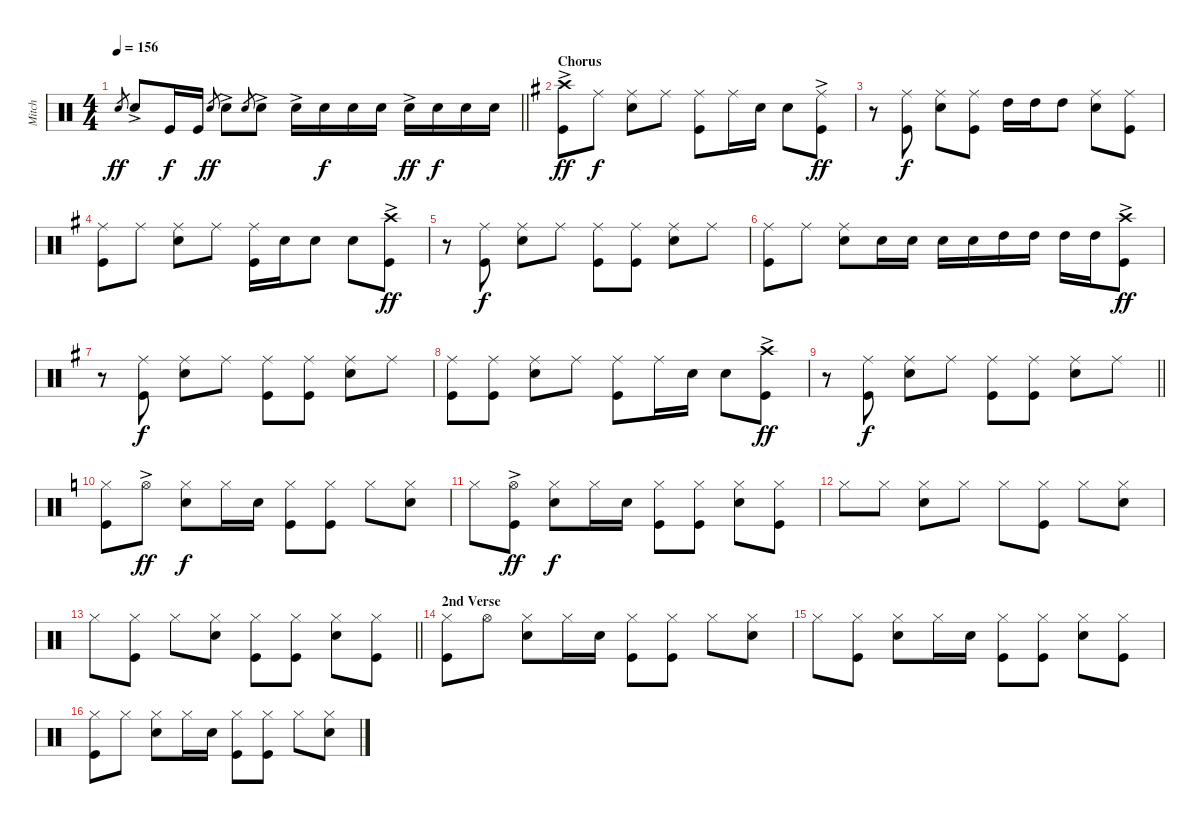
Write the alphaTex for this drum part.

\track ("Mitch" "Mitch") {instrument percussion}
\staff {score}
\articulation defaults
\ts (4 4)
\tempo 156
\clef neutral
\barLineRight lightlight
\ks c "Snare (hit) 2".8{gr dy ff} "Snare (hit) 2"{ac}.8 "Kick (hit)".16{dy f} "Kick (hit)".16 "Snare (hit) 2".8{gr dy ff} "Snare (hit) 2"{ac}.8 "Snare (hit) 2".8{gr} "Snare (hit) 2"{ac}.8 "Snare (hit) 2"{ac}.16 "Snare (hit) 2".16{dy f} "Snare (hit) 2".16 "Snare (hit) 2".16 "Snare (hit) 2"{ac}.16{dy ff} "Snare (hit) 2".16{dy f} "Snare (hit) 2".16 "Snare (hit) 2".16
|
\section ("" "Chorus")
\ks g
("Crash high (hit)"{ac} "Kick (hit)").8{dy ff} "Ride (middle)".8{dy f} ("Ride (middle)" "Snare (hit) 2").8 "Ride (middle)".8 ("Ride (middle)" "Kick (hit)").8 "Ride (middle)".16 "Snare (hit) 2".16 "Snare (hit) 2".8 ("Ride (middle)"{ac} "Kick (hit)").8{dy ff} |
r.8 ("Ride (middle)" "Kick (hit)").8{dy f} ("Ride (middle)" "Snare (hit) 2").8 ("Ride (middle)" "Kick (hit)").8 "High Tom (hit)".16 "High Tom (hit)".16 "High Tom (hit)".8 ("Ride (middle)" "Snare (hit) 2").8 ("Ride (middle)" "Kick (hit)").8 |
("Ride (middle)" "Kick (hit)").8 "Ride (middle)".8 ("Ride (middle)" "Snare (hit) 2").8 "Ride (middle)".8 ("Ride (middle)" "Kick (hit)").16 "Snare (hit) 2".16 "Snare (hit) 2".8 "Snare (hit) 2".8 ("Crash high (hit)"{ac} "Kick (hit)").8{dy ff} |
r.8 ("Ride (middle)" "Kick (hit)").8{dy f} ("Ride (middle)" "Snare (hit) 2").8 "Ride (middle)".8 ("Ride (middle)" "Kick (hit)").8 ("Ride (middle)" "Kick (hit)").8 ("Ride (middle)" "Snare (hit) 2").8 "Ride (middle)".8 |
("Ride (middle)" "Kick (hit)").8 "Ride (middle)".8 ("Ride (middle)" "Snare (hit) 2").8 "Snare (hit) 2".16 "Snare (hit) 2".16 "Snare (hit) 2".16 "Snare (hit) 2".16 "High Tom (hit)".16 "High Tom (hit)".16 "High Tom (hit)".16 "High Tom (hit)".16 ("Crash high (hit)"{ac} "Kick (hit)").8{dy ff} |
r.8 ("Ride (middle)" "Kick (hit)").8{dy f} ("Ride (middle)" "Snare (hit) 2").8 "Ride (middle)".8 ("Ride (middle)" "Kick (hit)").8 ("Ride (middle)" "Kick (hit)").8 ("Ride (middle)" "Snare (hit) 2").8 "Ride (middle)".8 |
("Ride (middle)" "Kick (hit)").8 ("Ride (middle)" "Kick (hit)").8 ("Ride (middle)" "Snare (hit) 2").8 "Ride (middle)".8 ("Ride (middle)" "Kick (hit)").8 "Ride (middle)".16 "Snare (hit) 2".16 "Snare (hit) 2".8 ("Crash high (hit)"{ac} "Kick (hit)").8{dy ff} |
\barLineRight lightlight
r.8 ("Ride (middle)" "Kick (hit)").8{dy f} ("Ride (middle)" "Snare (hit) 2").8 "Ride (middle)".8 ("Ride (middle)" "Kick (hit)").8 ("Ride (middle)" "Kick (hit)").8 ("Ride (middle)" "Snare (hit) 2").8 "Ride (middle)".8 |
\ks c
("Hi-Hat (closed)" "Kick (hit)").8 "Hi-Hat (open)"{ac}.8{dy ff} ("Hi-Hat (closed)" "Snare (hit) 2").8{dy f} "Hi-Hat (closed)".16 "Snare (hit) 2".16 ("Hi-Hat (closed)" "Kick (hit)").8 ("Hi-Hat (closed)" "Kick (hit)").8 "Hi-Hat (closed)".8 ("Hi-Hat (closed)" "Snare (hit) 2").8 |
"Hi-Hat (closed)".8 ("Hi-Hat (open)"{ac} "Kick (hit)").8{dy ff} ("Hi-Hat (closed)" "Snare (hit) 2").8{dy f} "Hi-Hat (closed)".16 "Snare (hit) 2".16 ("Hi-Hat (closed)" "Kick (hit)").8 ("Hi-Hat (closed)" "Kick (hit)").8 ("Hi-Hat (closed)" "Snare (hit) 2").8 ("Hi-Hat (closed)" "Kick (hit)").8 |
"Hi-Hat (closed)".8 "Hi-Hat (closed)".8 ("Hi-Hat (closed)" "Snare (hit) 2").8 "Hi-Hat (closed)".8 "Hi-Hat (closed)".8 ("Hi-Hat (closed)" "Kick (hit)").8 "Hi-Hat (closed)".8 ("Hi-Hat (closed)" "Snare (hit) 2").8 |
\barLineRight lightlight "Hi-Hat (closed)".8
("Hi-Hat (closed)" "Kick (hit)").8 "Hi-Hat (closed)".8 ("Hi-Hat (closed)" "Snare (hit) 2").8 ("Hi-Hat (closed)" "Kick (hit)").8 ("Hi-Hat (closed)" "Kick (hit)").8 ("Hi-Hat (closed)" "Snare (hit) 2").8 ("Hi-Hat (closed)" "Kick (hit)").8 |
\section ("" "2nd Verse")
("Hi-Hat (closed)" "Kick (hit)").8 "Hi-Hat (open)".8 ("Hi-Hat (closed)" "Snare (hit) 2").8 "Hi-Hat (closed)".16 "Snare (hit) 2".16 ("Hi-Hat (closed)" "Kick (hit)").8 ("Hi-Hat (closed)" "Kick (hit)").8 "Hi-Hat (closed)".8 ("Hi-Hat (closed)" "Snare (hit) 2").8 |
"Hi-Hat (closed)".8 ("Hi-Hat (closed)" "Kick (hit)").8 ("Hi-Hat (closed)" "Snare (hit) 2").8 "Hi-Hat (closed)".16 "Snare (hit) 2".16 ("Hi-Hat (closed)" "Kick (hit)").8 ("Hi-Hat (closed)" "Kick (hit)").8 ("Hi-Hat (closed)" "Snare (hit) 2").8 ("Hi-Hat (closed)" "Kick (hit)").8 |
("Hi-Hat (closed)" "Kick (hit)").8 "Hi-Hat (closed)".8 ("Hi-Hat (closed)" "Snare (hit) 2").8 "Hi-Hat (closed)".16 "Snare (hit) 2".16 ("Hi-Hat (closed)" "Kick (hit)").8 ("Hi-Hat (closed)" "Kick (hit)").8 "Hi-Hat (closed)".8 ("Hi-Hat (closed)" "Snare (hit) 2").8
